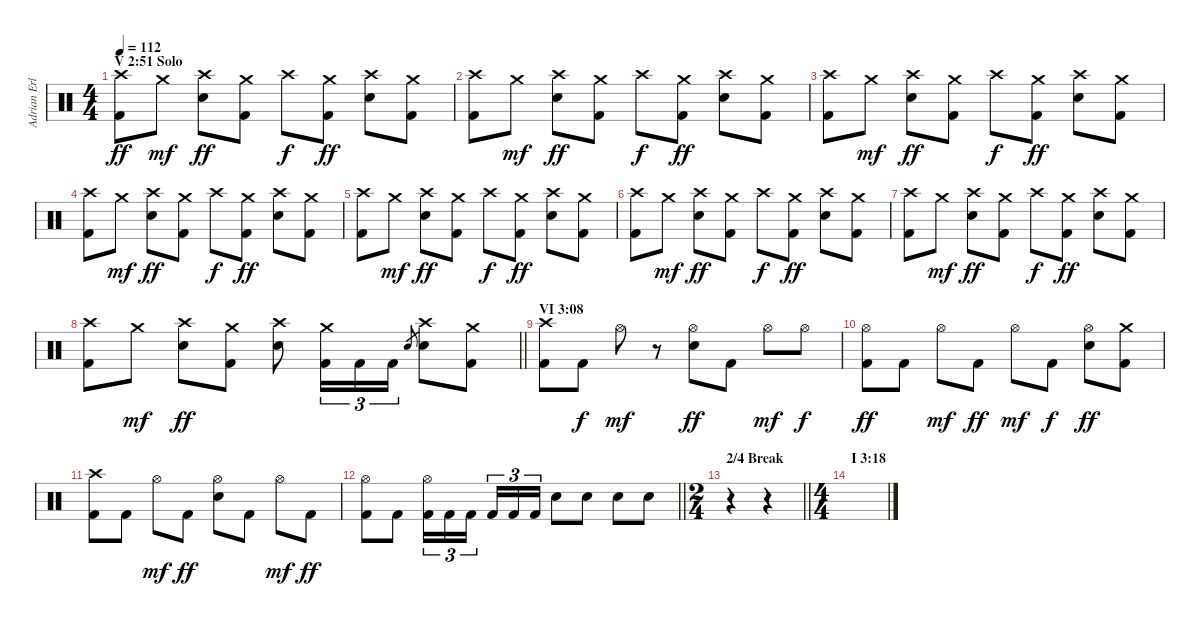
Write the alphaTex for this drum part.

\track ("Adrian Erlandsson (Drums)" "Adrian Erl") {instrument percussion}
\staff {score}
\articulation defaults
\ts (4 4)
\section ("" "V 2:51 Solo")
\tempo 112
\clef neutral
\ks c
("Crash high (hit)" "Kick (hit) 2").8{dy ff} "Crash medium (hit)".8{dy mf} ("Crash high (hit)" "Electric Snare (hit)").8{dy ff} ("Crash medium (hit)" "Kick (hit) 2").8 "Crash high (hit)".8{dy f} ("Crash medium (hit)" "Kick (hit) 2").8{dy ff} ("Crash high (hit)" "Electric Snare (hit)").8 ("Crash medium (hit)" "Kick (hit) 2").8 |
("Crash high (hit)" "Kick (hit) 2").8 "Crash medium (hit)".8{dy mf} ("Crash high (hit)" "Electric Snare (hit)").8{dy ff} ("Crash medium (hit)" "Kick (hit) 2").8 "Crash high (hit)".8{dy f} ("Crash medium (hit)" "Kick (hit) 2").8{dy ff} ("Crash high (hit)" "Electric Snare (hit)").8 ("Crash medium (hit)" "Kick (hit) 2").8 |
("Crash high (hit)" "Kick (hit) 2").8 "Crash medium (hit)".8{dy mf} ("Crash high (hit)" "Electric Snare (hit)").8{dy ff} ("Crash medium (hit)" "Kick (hit) 2").8 "Crash high (hit)".8{dy f} ("Crash medium (hit)" "Kick (hit) 2").8{dy ff} ("Crash high (hit)" "Electric Snare (hit)").8 ("Crash medium (hit)" "Kick (hit) 2").8 |
("Crash high (hit)" "Kick (hit) 2").8 "Crash medium (hit)".8{dy mf} ("Crash high (hit)" "Electric Snare (hit)").8{dy ff} ("Crash medium (hit)" "Kick (hit) 2").8 "Crash high (hit)".8{dy f} ("Crash medium (hit)" "Kick (hit) 2").8{dy ff} ("Crash high (hit)" "Electric Snare (hit)").8 ("Crash medium (hit)" "Kick (hit) 2").8 |
("Crash high (hit)" "Kick (hit) 2").8 "Crash medium (hit)".8{dy mf} ("Crash high (hit)" "Electric Snare (hit)").8{dy ff} ("Crash medium (hit)" "Kick (hit) 2").8 "Crash high (hit)".8{dy f} ("Crash medium (hit)" "Kick (hit) 2").8{dy ff} ("Crash high (hit)" "Electric Snare (hit)").8 ("Crash medium (hit)" "Kick (hit) 2").8 |
("Crash high (hit)" "Kick (hit) 2").8 "Crash medium (hit)".8{dy mf} ("Crash high (hit)" "Electric Snare (hit)").8{dy ff} ("Crash medium (hit)" "Kick (hit) 2").8 "Crash high (hit)".8{dy f} ("Crash medium (hit)" "Kick (hit) 2").8{dy ff} ("Crash high (hit)" "Electric Snare (hit)").8 ("Crash medium (hit)" "Kick (hit) 2").8 |
("Crash high (hit)" "Kick (hit) 2").8 "Crash medium (hit)".8{dy mf} ("Crash high (hit)" "Electric Snare (hit)").8{dy ff} ("Crash medium (hit)" "Kick (hit) 2").8 "Crash high (hit)".8{dy f} ("Crash medium (hit)" "Kick (hit) 2").8{dy ff} ("Crash high (hit)" "Electric Snare (hit)").8 ("Crash medium (hit)" "Kick (hit) 2").8 |
\barLineRight lightlight
("Crash high (hit)" "Kick (hit) 2").8 "Crash medium (hit)".8{dy mf} ("Crash high (hit)" "Electric Snare (hit)").8{dy ff} ("Crash medium (hit)" "Kick (hit) 2").8 ("Crash high (hit)" "Electric Snare (hit)").8 ("Crash medium (hit)" "Kick (hit) 2").16{tu (3 2)} "Kick (hit) 2".16{tu (3 2)} "Kick (hit) 2".16{tu (3 2)} "Electric Snare (hit)".8{gr} ("Crash high (hit)" "Electric Snare (hit)").8 ("Crash medium (hit)" "Kick (hit) 2").8 |
\section ("" "VI 3:08")
("Crash high (hit)" "Kick (hit) 2").8 "Kick (hit) 2".8{dy f} "Hi-Hat (open)".8{dy mf} r.8 ("Hi-Hat (open)" "Electric Snare (hit)").8{dy ff} "Kick (hit) 2".8 "Hi-Hat (open)".8{dy mf} "Hi-Hat (open)".8{dy f} |
("Hi-Hat (open)" "Kick (hit) 2").8{dy ff} "Kick (hit) 2".8 "Hi-Hat (open)".8{dy mf} "Kick (hit) 2".8{dy ff} "Hi-Hat (open)".8{dy mf} "Kick (hit) 2".8{dy f} ("Hi-Hat (open)" "Electric Snare (hit)").8{dy ff} ("Crash medium (hit)" "Kick (hit) 2").8 |
("Crash high (hit)" "Kick (hit) 2").8 "Kick (hit) 2".8 "Hi-Hat (open)".8{dy mf} "Kick (hit) 2".8{dy ff} ("Hi-Hat (open)" "Electric Snare (hit)").8 "Kick (hit) 2".8 "Hi-Hat (open)".8{dy mf} "Kick (hit) 2".8{dy ff} |
\barLineRight lightlight
("Hi-Hat (open)" "Kick (hit) 2").8 "Kick (hit) 2".8 ("Hi-Hat (open)" "Kick (hit) 2").16{tu (3 2)} "Kick (hit) 2".16{tu (3 2)} "Kick (hit) 2".16{tu (3 2) beam splitsecondary} "Kick (hit) 2".16{tu (3 2)} "Kick (hit) 2".16{tu (3 2)} "Kick (hit) 2".16{tu (3 2)} "Electric Snare (hit)".8 "Electric Snare (hit)".8 "Electric Snare (hit)".8 "Electric Snare (hit)".8 |
\ts (2 4)
\section ("" "2/4 Break")
\barLineRight lightlight
r.4 r.4 |
\ts (4 4)
\section ("" "I 3:18")
